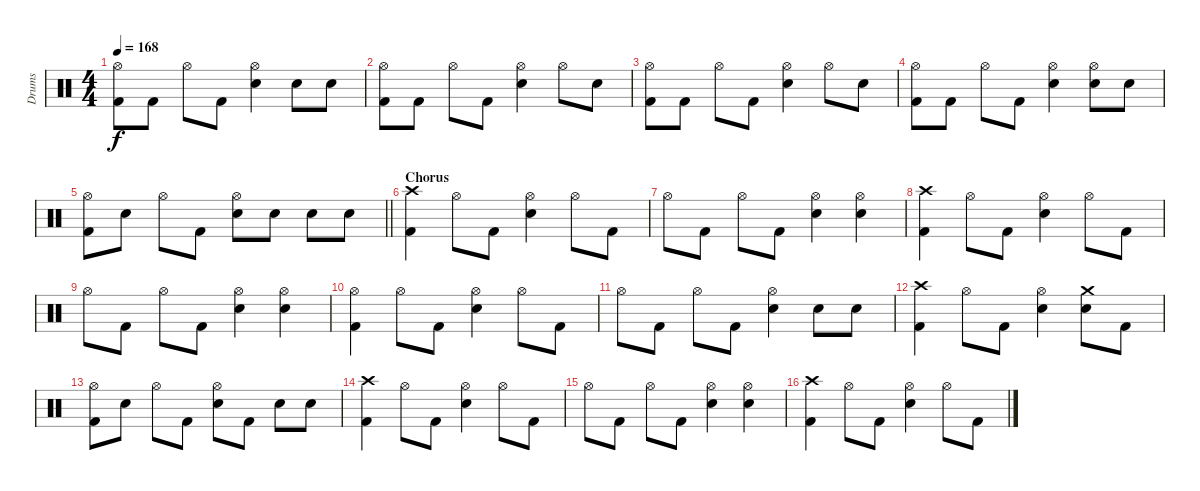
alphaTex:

\track ("Drums" "Drums") {instrument percussion}
\staff {score}
\articulation defaults
\ts (4 4)
\tempo 168
\clef neutral
\ks c
("Hi-Hat (open)" "Kick (hit) 2").8{dy f} "Kick (hit) 2".8 "Hi-Hat (open)".8 "Kick (hit) 2".8 ("Hi-Hat (open)" "Snare (hit) 2").4 "Snare (hit) 2".8 "Snare (hit) 2".8 |
("Hi-Hat (open)" "Kick (hit) 2").8 "Kick (hit) 2".8 "Hi-Hat (open)".8 "Kick (hit) 2".8 ("Hi-Hat (open)" "Snare (hit) 2").4 "Hi-Hat (open)".8 "Snare (hit) 2".8 |
("Hi-Hat (open)" "Kick (hit) 2").8 "Kick (hit) 2".8 "Hi-Hat (open)".8 "Kick (hit) 2".8 ("Hi-Hat (open)" "Snare (hit) 2").4 "Hi-Hat (open)".8 "Snare (hit) 2".8 |
("Hi-Hat (open)" "Kick (hit) 2").8 "Kick (hit) 2".8 "Hi-Hat (open)".8 "Kick (hit) 2".8 ("Hi-Hat (open)" "Snare (hit) 2").4 ("Hi-Hat (open)" "Snare (hit) 2").8 "Snare (hit) 2".8 |
\barLineRight lightlight
("Hi-Hat (open)" "Kick (hit) 2").8 "Snare (hit) 2".8 "Hi-Hat (open)".8 "Kick (hit) 2".8 ("Hi-Hat (open)" "Snare (hit) 2").8 "Snare (hit) 2".8 "Snare (hit) 2".8 "Snare (hit) 2".8 |
\section ("" "Chorus")
("Crash high (hit)" "Kick (hit) 2").4 "Hi-Hat (open)".8 "Kick (hit) 2".8 ("Hi-Hat (open)" "Snare (hit) 2").4 "Hi-Hat (open)".8 "Kick (hit) 2".8 |
"Hi-Hat (open)".8 "Kick (hit) 2".8 "Hi-Hat (open)".8 "Kick (hit) 2".8 ("Hi-Hat (open)" "Snare (hit) 2").4 ("Hi-Hat (open)" "Snare (hit) 2").4 |
("Crash high (hit)" "Kick (hit) 2").4 "Hi-Hat (open)".8 "Kick (hit) 2".8 ("Hi-Hat (open)" "Snare (hit) 2").4 "Hi-Hat (open)".8 "Kick (hit) 2".8 |
"Hi-Hat (open)".8 "Kick (hit) 2".8 "Hi-Hat (open)".8 "Kick (hit) 2".8 ("Hi-Hat (open)" "Snare (hit) 2").4 ("Hi-Hat (open)" "Snare (hit) 2").4 |
("Hi-Hat (open)" "Kick (hit) 2").4 "Hi-Hat (open)".8 "Kick (hit) 2".8 ("Hi-Hat (open)" "Snare (hit) 2").4 "Hi-Hat (open)".8 "Kick (hit) 2".8 |
"Hi-Hat (open)".8 "Kick (hit) 2".8 "Hi-Hat (open)".8 "Kick (hit) 2".8 ("Hi-Hat (open)" "Snare (hit) 2").4 "Snare (hit) 2".8 "Snare (hit) 2".8 |
("Crash high (hit)" "Kick (hit) 2").4 "Hi-Hat (open)".8 "Kick (hit) 2".8 ("Hi-Hat (open)" "Snare (hit) 2").4 ("Crash medium (hit)" "Snare (hit) 2").8 "Kick (hit) 2".8 |
("Hi-Hat (open)" "Kick (hit) 2").8 "Snare (hit) 2".8 "Hi-Hat (open)".8 "Kick (hit) 2".8 ("Hi-Hat (open)" "Snare (hit) 2").8 "Kick (hit) 2".8 "Snare (hit) 2".8 "Snare (hit) 2".8 |
("Crash high (hit)" "Kick (hit) 2").4 "Hi-Hat (open)".8 "Kick (hit) 2".8 ("Hi-Hat (open)" "Snare (hit) 2").4 "Hi-Hat (open)".8 "Kick (hit) 2".8 |
"Hi-Hat (open)".8 "Kick (hit) 2".8 "Hi-Hat (open)".8 "Kick (hit) 2".8 ("Hi-Hat (open)" "Snare (hit) 2").4 ("Hi-Hat (open)" "Snare (hit) 2").4 |
("Crash high (hit)" "Kick (hit) 2").4 "Hi-Hat (open)".8 "Kick (hit) 2".8 ("Hi-Hat (open)" "Snare (hit) 2").4 "Hi-Hat (open)".8 "Kick (hit) 2".8
